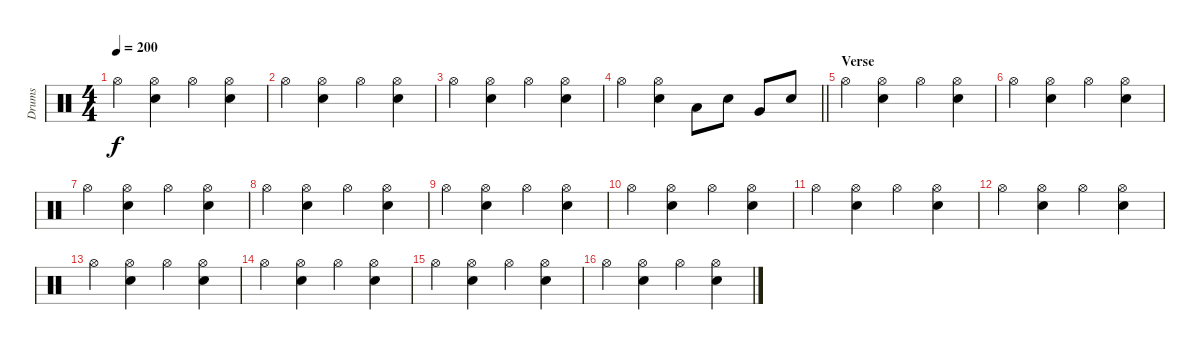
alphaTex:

\track ("Drums" "Drums") {instrument percussion}
\staff {score}
\articulation defaults
\ts (4 4)
\tempo 200
\clef neutral
\ks c "Hi-Hat (open)".4{dy f}
("Hi-Hat (open)" "Snare (hit) 2").4 "Hi-Hat (open)".4 ("Hi-Hat (open)" "Snare (hit) 2").4 |
"Hi-Hat (open)".4 ("Hi-Hat (open)" "Snare (hit) 2").4 "Hi-Hat (open)".4 ("Hi-Hat (open)" "Snare (hit) 2").4 |
"Hi-Hat (open)".4 ("Hi-Hat (open)" "Snare (hit) 2").4 "Hi-Hat (open)".4 ("Hi-Hat (open)" "Snare (hit) 2").4 |
\barLineRight lightlight "Hi-Hat (open)".4
("Hi-Hat (open)" "Snare (hit) 2").4 "Low Floor Tom (hit)".8 "Snare (hit) 2".8 "Very Low Tom (hit)".8 "Snare (hit) 2".8 |
\section ("" "Verse")
"Hi-Hat (open)".4 ("Hi-Hat (open)" "Snare (hit) 2").4 "Hi-Hat (open)".4 ("Hi-Hat (open)" "Snare (hit) 2").4 |
"Hi-Hat (open)".4 ("Hi-Hat (open)" "Snare (hit) 2").4 "Hi-Hat (open)".4 ("Hi-Hat (open)" "Snare (hit) 2").4 |
"Hi-Hat (open)".4 ("Hi-Hat (open)" "Snare (hit) 2").4 "Hi-Hat (open)".4 ("Hi-Hat (open)" "Snare (hit) 2").4 |
"Hi-Hat (open)".4 ("Hi-Hat (open)" "Snare (hit) 2").4 "Hi-Hat (open)".4 ("Hi-Hat (open)" "Snare (hit) 2").4 |
"Hi-Hat (open)".4 ("Hi-Hat (open)" "Snare (hit) 2").4 "Hi-Hat (open)".4 ("Hi-Hat (open)" "Snare (hit) 2").4 |
"Hi-Hat (open)".4 ("Hi-Hat (open)" "Snare (hit) 2").4 "Hi-Hat (open)".4 ("Hi-Hat (open)" "Snare (hit) 2").4 |
"Hi-Hat (open)".4 ("Hi-Hat (open)" "Snare (hit) 2").4 "Hi-Hat (open)".4 ("Hi-Hat (open)" "Snare (hit) 2").4 |
"Hi-Hat (open)".4 ("Hi-Hat (open)" "Snare (hit) 2").4 "Hi-Hat (open)".4 ("Hi-Hat (open)" "Snare (hit) 2").4 |
"Hi-Hat (open)".4 ("Hi-Hat (open)" "Snare (hit) 2").4 "Hi-Hat (open)".4 ("Hi-Hat (open)" "Snare (hit) 2").4 |
"Hi-Hat (open)".4 ("Hi-Hat (open)" "Snare (hit) 2").4 "Hi-Hat (open)".4 ("Hi-Hat (open)" "Snare (hit) 2").4 |
"Hi-Hat (open)".4 ("Hi-Hat (open)" "Snare (hit) 2").4 "Hi-Hat (open)".4 ("Hi-Hat (open)" "Snare (hit) 2").4 |
"Hi-Hat (open)".4 ("Hi-Hat (open)" "Snare (hit) 2").4 "Hi-Hat (open)".4 ("Hi-Hat (open)" "Snare (hit) 2").4
